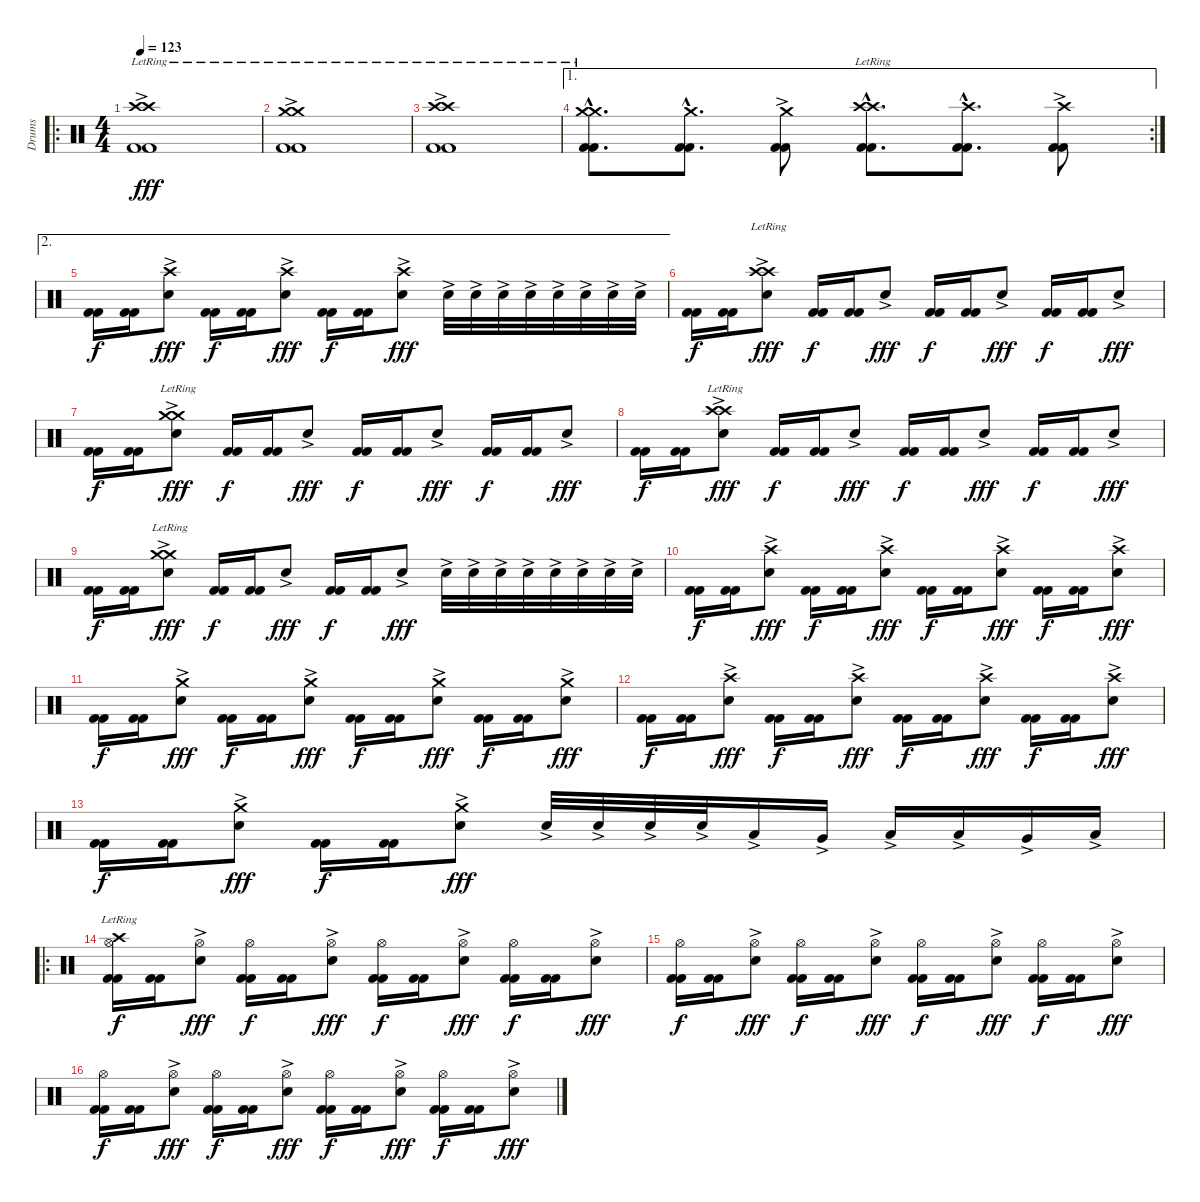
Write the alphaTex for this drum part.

\track ("Drums" "Drums") {instrument percussion}
\staff {score}
\articulation defaults
\ro
\ts (4 4)
\tempo 123
\clef neutral
\ks c
("Crash high (hit)"{lr} "Crash high (hit)"{lr} "Kick (hit) 2" "Kick (hit) 2"{ac lr}).1{dy fff} |
("Crash medium (hit)"{lr} "Crash medium (hit)"{lr} "Kick (hit) 2" "Kick (hit) 2"{ac lr}).1 |
("Crash high (hit)"{lr} "Crash high (hit)"{lr} "Kick (hit) 2" "Kick (hit) 2"{ac lr}).1 |
\ae 1
\rc 2
("Crash medium (hit)"{hac lr} "Crash medium (hit)"{hac lr} "Kick (hit) 2"{hac} "Kick (hit) 2"{hac}).8{d} ("Crash medium (hit)"{hac} "Kick (hit) 2"{hac} "Kick (hit) 2"{hac}).8{d} ("Crash medium (hit)" "Kick (hit) 2"{ac} "Kick (hit) 2").8 ("Crash high (hit)"{hac lr} "Crash high (hit)"{hac lr} "Kick (hit) 2"{hac} "Kick (hit) 2"{hac}).8{d} ("Crash high (hit)"{hac} "Kick (hit) 2"{hac} "Kick (hit) 2"{hac}).8{d} ("Crash high (hit)" "Kick (hit) 2"{ac} "Kick (hit) 2").8 |
\ae 2
("Kick (hit) 2" "Kick (hit) 2").16{dy f} ("Kick (hit) 2" "Kick (hit) 2").16 ("Crash high (hit)" "Electric Snare (hit)"{ac}).8{dy fff} ("Kick (hit) 2" "Kick (hit) 2").16{dy f} ("Kick (hit) 2" "Kick (hit) 2").16 ("Crash high (hit)" "Electric Snare (hit)"{ac}).8{dy fff} ("Kick (hit) 2" "Kick (hit) 2").16{dy f} ("Kick (hit) 2" "Kick (hit) 2").16 ("Crash high (hit)" "Electric Snare (hit)"{ac}).8{dy fff} "Electric Snare (hit)"{ac}.32 "Electric Snare (hit)"{ac}.32 "Electric Snare (hit)"{ac}.32 "Electric Snare (hit)"{ac}.32 "Electric Snare (hit)"{ac}.32 "Electric Snare (hit)"{ac}.32 "Electric Snare (hit)"{ac}.32 "Electric Snare (hit)"{ac}.32 |
("Kick (hit) 2" "Kick (hit) 2").16{dy f} ("Kick (hit) 2" "Kick (hit) 2").16 ("Crash high (hit)"{ac lr} "Crash high (hit)"{lr} "Electric Snare (hit)").8{dy fff} ("Kick (hit) 2" "Kick (hit) 2").16{dy f} ("Kick (hit) 2" "Kick (hit) 2").16 "Electric Snare (hit)"{ac}.8{dy fff} ("Kick (hit) 2" "Kick (hit) 2").16{dy f} ("Kick (hit) 2" "Kick (hit) 2").16 "Electric Snare (hit)"{ac}.8{dy fff} ("Kick (hit) 2" "Kick (hit) 2").16{dy f} ("Kick (hit) 2" "Kick (hit) 2").16 "Electric Snare (hit)"{ac}.8{dy fff} |
("Kick (hit) 2" "Kick (hit) 2").16{dy f} ("Kick (hit) 2" "Kick (hit) 2").16 ("Crash medium (hit)"{ac lr} "Crash medium (hit)"{lr} "Electric Snare (hit)").8{dy fff} ("Kick (hit) 2" "Kick (hit) 2").16{dy f} ("Kick (hit) 2" "Kick (hit) 2").16 "Electric Snare (hit)"{ac}.8{dy fff} ("Kick (hit) 2" "Kick (hit) 2").16{dy f} ("Kick (hit) 2" "Kick (hit) 2").16 "Electric Snare (hit)"{ac}.8{dy fff} ("Kick (hit) 2" "Kick (hit) 2").16{dy f} ("Kick (hit) 2" "Kick (hit) 2").16 "Electric Snare (hit)"{ac}.8{dy fff} |
("Kick (hit) 2" "Kick (hit) 2").16{dy f} ("Kick (hit) 2" "Kick (hit) 2").16 ("Crash high (hit)"{ac lr} "Crash high (hit)"{lr} "Electric Snare (hit)").8{dy fff} ("Kick (hit) 2" "Kick (hit) 2").16{dy f} ("Kick (hit) 2" "Kick (hit) 2").16 "Electric Snare (hit)"{ac}.8{dy fff} ("Kick (hit) 2" "Kick (hit) 2").16{dy f} ("Kick (hit) 2" "Kick (hit) 2").16 "Electric Snare (hit)"{ac}.8{dy fff} ("Kick (hit) 2" "Kick (hit) 2").16{dy f} ("Kick (hit) 2" "Kick (hit) 2").16 "Electric Snare (hit)"{ac}.8{dy fff} |
("Kick (hit) 2" "Kick (hit) 2").16{dy f} ("Kick (hit) 2" "Kick (hit) 2").16 ("Crash medium (hit)"{ac lr} "Crash medium (hit)"{lr} "Electric Snare (hit)").8{dy fff} ("Kick (hit) 2" "Kick (hit) 2").16{dy f} ("Kick (hit) 2" "Kick (hit) 2").16 "Electric Snare (hit)"{ac}.8{dy fff} ("Kick (hit) 2" "Kick (hit) 2").16{dy f} ("Kick (hit) 2" "Kick (hit) 2").16 "Electric Snare (hit)"{ac}.8{dy fff} "Electric Snare (hit)"{ac}.32 "Electric Snare (hit)"{ac}.32 "Electric Snare (hit)"{ac}.32 "Electric Snare (hit)"{ac}.32 "Electric Snare (hit)"{ac}.32 "Electric Snare (hit)"{ac}.32 "Electric Snare (hit)"{ac}.32 "Electric Snare (hit)"{ac}.32 |
("Kick (hit) 2" "Kick (hit) 2").16{dy f} ("Kick (hit) 2" "Kick (hit) 2").16 ("Crash high (hit)"{ac} "Electric Snare (hit)").8{dy fff} ("Kick (hit) 2" "Kick (hit) 2").16{dy f} ("Kick (hit) 2" "Kick (hit) 2").16 ("Crash high (hit)" "Electric Snare (hit)"{ac}).8{dy fff} ("Kick (hit) 2" "Kick (hit) 2").16{dy f} ("Kick (hit) 2" "Kick (hit) 2").16 ("Crash high (hit)" "Electric Snare (hit)"{ac}).8{dy fff} ("Kick (hit) 2" "Kick (hit) 2").16{dy f} ("Kick (hit) 2" "Kick (hit) 2").16 ("Crash high (hit)" "Electric Snare (hit)"{ac}).8{dy fff} |
("Kick (hit) 2" "Kick (hit) 2").16{dy f} ("Kick (hit) 2" "Kick (hit) 2").16 ("Crash medium (hit)"{ac} "Electric Snare (hit)").8{dy fff} ("Kick (hit) 2" "Kick (hit) 2").16{dy f} ("Kick (hit) 2" "Kick (hit) 2").16 ("Crash medium (hit)" "Electric Snare (hit)"{ac}).8{dy fff} ("Kick (hit) 2" "Kick (hit) 2").16{dy f} ("Kick (hit) 2" "Kick (hit) 2").16 ("Crash medium (hit)" "Electric Snare (hit)"{ac}).8{dy fff} ("Kick (hit) 2" "Kick (hit) 2").16{dy f} ("Kick (hit) 2" "Kick (hit) 2").16 ("Crash medium (hit)" "Electric Snare (hit)"{ac}).8{dy fff} |
("Kick (hit) 2" "Kick (hit) 2").16{dy f} ("Kick (hit) 2" "Kick (hit) 2").16 ("Crash high (hit)"{ac} "Electric Snare (hit)").8{dy fff} ("Kick (hit) 2" "Kick (hit) 2").16{dy f} ("Kick (hit) 2" "Kick (hit) 2").16 ("Crash high (hit)" "Electric Snare (hit)"{ac}).8{dy fff} ("Kick (hit) 2" "Kick (hit) 2").16{dy f} ("Kick (hit) 2" "Kick (hit) 2").16 ("Crash high (hit)" "Electric Snare (hit)"{ac}).8{dy fff} ("Kick (hit) 2" "Kick (hit) 2").16{dy f} ("Kick (hit) 2" "Kick (hit) 2").16 ("Crash high (hit)" "Electric Snare (hit)"{ac}).8{dy fff} |
("Kick (hit) 2" "Kick (hit) 2").16{dy f} ("Kick (hit) 2" "Kick (hit) 2").16 ("Crash medium (hit)"{ac} "Electric Snare (hit)").8{dy fff} ("Kick (hit) 2" "Kick (hit) 2").16{dy f} ("Kick (hit) 2" "Kick (hit) 2").16 ("Crash medium (hit)" "Electric Snare (hit)"{ac}).8{dy fff} "Electric Snare (hit)"{ac}.32 "Electric Snare (hit)"{ac}.32 "Electric Snare (hit)"{ac}.32 "Electric Snare (hit)"{ac}.32 "Low Tom (hit)"{ac}.16 "Very Low Tom (hit)"{ac}.16 "Low Floor Tom (hit)"{ac}.16 "Low Tom (hit)"{ac}.16 "Very Low Tom (hit)"{ac}.16 "Low Floor Tom (hit)"{ac}.16 |
\ro
("Crash high (hit)"{lr} "Hi-Hat (open)" "Kick (hit) 2" "Kick (hit) 2").16{dy f} ("Kick (hit) 2" "Kick (hit) 2").16 ("Hi-Hat (open)" "Electric Snare (hit)"{ac}).8{dy fff} ("Hi-Hat (open)" "Kick (hit) 2" "Kick (hit) 2").16{dy f} ("Kick (hit) 2" "Kick (hit) 2").16 ("Hi-Hat (open)" "Electric Snare (hit)"{ac}).8{dy fff} ("Hi-Hat (open)" "Kick (hit) 2" "Kick (hit) 2").16{dy f} ("Kick (hit) 2" "Kick (hit) 2").16 ("Hi-Hat (open)" "Electric Snare (hit)"{ac}).8{dy fff} ("Hi-Hat (open)" "Kick (hit) 2" "Kick (hit) 2").16{dy f} ("Kick (hit) 2" "Kick (hit) 2").16 ("Hi-Hat (open)" "Electric Snare (hit)"{ac}).8{dy fff} |
("Hi-Hat (open)" "Kick (hit) 2" "Kick (hit) 2").16{dy f} ("Kick (hit) 2" "Kick (hit) 2").16 ("Hi-Hat (open)" "Electric Snare (hit)"{ac}).8{dy fff} ("Hi-Hat (open)" "Kick (hit) 2" "Kick (hit) 2").16{dy f} ("Kick (hit) 2" "Kick (hit) 2").16 ("Hi-Hat (open)" "Electric Snare (hit)"{ac}).8{dy fff} ("Hi-Hat (open)" "Kick (hit) 2" "Kick (hit) 2").16{dy f} ("Kick (hit) 2" "Kick (hit) 2").16 ("Hi-Hat (open)" "Electric Snare (hit)"{ac}).8{dy fff} ("Hi-Hat (open)" "Kick (hit) 2" "Kick (hit) 2").16{dy f} ("Kick (hit) 2" "Kick (hit) 2").16 ("Hi-Hat (open)" "Electric Snare (hit)"{ac}).8{dy fff} |
("Hi-Hat (open)" "Kick (hit) 2" "Kick (hit) 2").16{dy f} ("Kick (hit) 2" "Kick (hit) 2").16 ("Hi-Hat (open)" "Electric Snare (hit)"{ac}).8{dy fff} ("Hi-Hat (open)" "Kick (hit) 2" "Kick (hit) 2").16{dy f} ("Kick (hit) 2" "Kick (hit) 2").16 ("Hi-Hat (open)" "Electric Snare (hit)"{ac}).8{dy fff} ("Hi-Hat (open)" "Kick (hit) 2" "Kick (hit) 2").16{dy f} ("Kick (hit) 2" "Kick (hit) 2").16 ("Hi-Hat (open)" "Electric Snare (hit)"{ac}).8{dy fff} ("Hi-Hat (open)" "Kick (hit) 2" "Kick (hit) 2").16{dy f} ("Kick (hit) 2" "Kick (hit) 2").16 ("Hi-Hat (open)" "Electric Snare (hit)"{ac}).8{dy fff}
